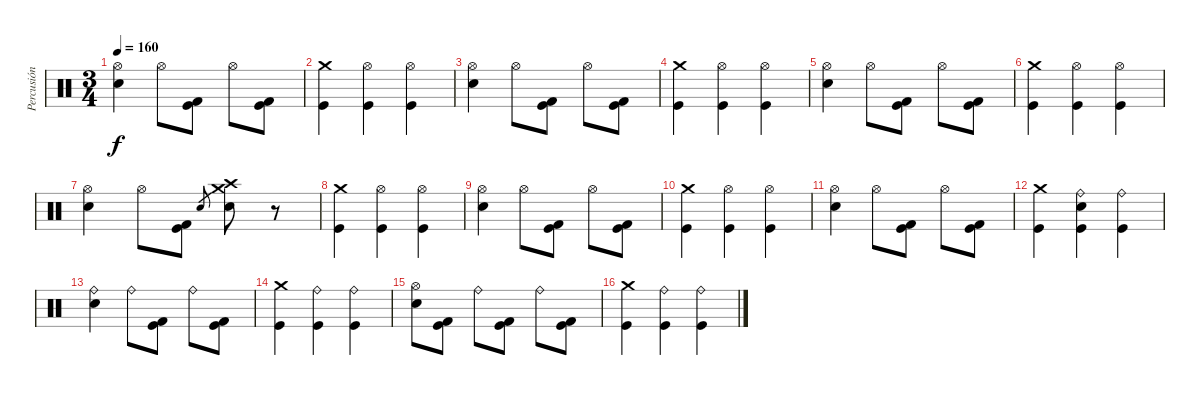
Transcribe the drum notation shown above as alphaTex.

\track ("Percusión" "Percusión") {instrument percussion}
\staff {score}
\articulation defaults
\ts (3 4)
\tempo 160
\clef neutral
\ks c
("Hi-Hat (open)" "Electric Snare (hit)").4{dy f} "Hi-Hat (open)".8 ("Kick (hit) 2" "Kick (hit)").8 "Hi-Hat (open)".8 ("Kick (hit) 2" "Kick (hit)").8 |
("Crash medium (hit)" "Kick (hit)").4 ("Hi-Hat (open)" "Kick (hit)").4 ("Hi-Hat (open)" "Kick (hit)").4 |
("Hi-Hat (open)" "Electric Snare (hit)").4 "Hi-Hat (open)".8 ("Kick (hit) 2" "Kick (hit)").8 "Hi-Hat (open)".8 ("Kick (hit) 2" "Kick (hit)").8 |
("Crash medium (hit)" "Kick (hit)").4 ("Hi-Hat (open)" "Kick (hit)").4 ("Hi-Hat (open)" "Kick (hit)").4 |
("Hi-Hat (open)" "Electric Snare (hit)").4 "Hi-Hat (open)".8 ("Kick (hit) 2" "Kick (hit)").8 "Hi-Hat (open)".8 ("Kick (hit) 2" "Kick (hit)").8 |
("Crash medium (hit)" "Kick (hit)").4 ("Hi-Hat (open)" "Kick (hit)").4 ("Hi-Hat (open)" "Kick (hit)").4 |
("Hi-Hat (open)" "Electric Snare (hit)").4 "Hi-Hat (open)".8 ("Kick (hit) 2" "Kick (hit)").8 "Electric Snare (hit)".8{gr} ("Crash medium (hit)" "Crash high (hit)" "Electric Snare (hit)").8 r.8 |
("Crash medium (hit)" "Kick (hit)").4 ("Hi-Hat (open)" "Kick (hit)").4 ("Hi-Hat (open)" "Kick (hit)").4 |
("Hi-Hat (open)" "Electric Snare (hit)").4 "Hi-Hat (open)".8 ("Kick (hit) 2" "Kick (hit)").8 "Hi-Hat (open)".8 ("Kick (hit) 2" "Kick (hit)").8 |
("Crash medium (hit)" "Kick (hit)").4 ("Hi-Hat (open)" "Kick (hit)").4 ("Hi-Hat (open)" "Kick (hit)").4 |
("Hi-Hat (open)" "Electric Snare (hit)").4 "Hi-Hat (open)".8 ("Kick (hit) 2" "Kick (hit)").8 "Hi-Hat (open)".8 ("Kick (hit) 2" "Kick (hit)").8 |
("Crash medium (hit)" "Kick (hit)").4 ("Ride (bell)" "Electric Snare (hit)" "Kick (hit)").4 ("Ride (bell)" "Kick (hit)").4 |
("Ride (bell)" "Electric Snare (hit)").4 "Ride (bell)".8 ("Kick (hit) 2" "Kick (hit)").8 "Ride (bell)".8 ("Kick (hit) 2" "Kick (hit)").8 |
("Crash medium (hit)" "Kick (hit)").4 ("Ride (bell)" "Kick (hit)").4 ("Ride (bell)" "Kick (hit)").4 |
("Hi-Hat (open)" "Electric Snare (hit)").8 ("Kick (hit) 2" "Kick (hit)").8 "Ride (bell)".8 ("Kick (hit) 2" "Kick (hit)").8 "Ride (bell)".8 ("Kick (hit) 2" "Kick (hit)").8 |
("Crash medium (hit)" "Kick (hit)").4 ("Ride (bell)" "Kick (hit)").4 ("Ride (bell)" "Kick (hit)").4
